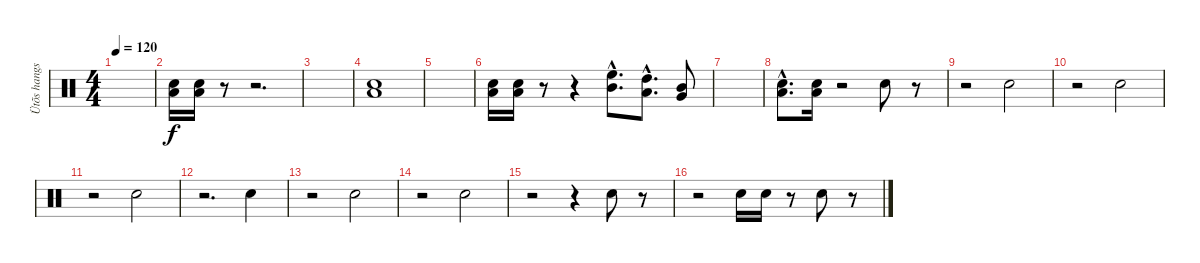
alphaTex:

\track ("Ütõs hangszer" "Ütõs hangs") {instrument percussion}
\staff {score}
\articulation defaults
\ts (4 4)
\tempo 120
\clef neutral
\ks c
|
("Low Tom (hit)" "Electric Snare (hit)").16 ("Low Tom (hit)" "Electric Snare (hit)").16 r.8 r.2{d} |
|
("Low Tom (hit)" "Electric Snare (hit)").1 |
|
("Low Tom (hit)" "Electric Snare (hit)").16 ("Low Tom (hit)" "Electric Snare (hit)").16 r.8 r.4 ("Mid Tom (hit)"{hac} "High Floor Tom (hit)"{hac}).8{d} ("Low Tom (hit)"{hac} "High Tom (hit)"{hac}).8{d} ("Very Low Tom (hit)" "Mid Tom (hit)").8 |
|
("Low Tom (hit)"{hac} "Electric Snare (hit)"{hac}).8{d} ("Low Tom (hit)" "Electric Snare (hit)").16 r.2 "Electric Snare (hit)".8 r.8 |
r.2 "Electric Snare (hit)".2 |
r.2 "Electric Snare (hit)".2 |
r.2 "Electric Snare (hit)".2 |
r.2{d} "Electric Snare (hit)".4 |
r.2 "Electric Snare (hit)".2 |
r.2 "Electric Snare (hit)".2 |
r.2 r.4 "Electric Snare (hit)".8 r.8 |
r.2 "Electric Snare (hit)".16 "Electric Snare (hit)".16 r.8 "Electric Snare (hit)".8 r.8
